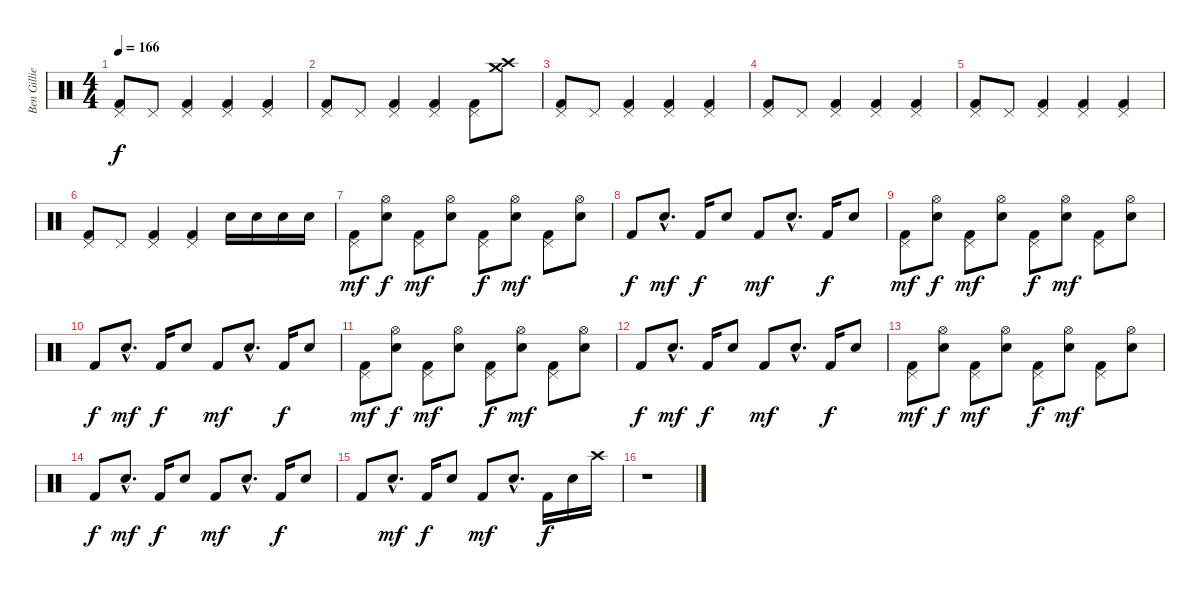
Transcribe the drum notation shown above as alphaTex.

\track ("Ben Gillies" "Ben Gillie") {instrument percussion}
\staff {score}
\articulation defaults
\ts (4 4)
\tempo 166
\clef neutral
\ks c
("Pedal Hi-Hat (hit)" "Kick (hit) 2").8{dy f} "Pedal Hi-Hat (hit)".8 ("Pedal Hi-Hat (hit)" "Kick (hit) 2").4 ("Pedal Hi-Hat (hit)" "Kick (hit) 2").4 ("Pedal Hi-Hat (hit)" "Kick (hit) 2").4 |
("Pedal Hi-Hat (hit)" "Kick (hit) 2").8 "Pedal Hi-Hat (hit)".8 ("Pedal Hi-Hat (hit)" "Kick (hit) 2").4 ("Pedal Hi-Hat (hit)" "Kick (hit) 2").4 ("Pedal Hi-Hat (hit)" "Kick (hit) 2").8 ("Crash high (hit)" "Crash medium (hit)").8 |
("Pedal Hi-Hat (hit)" "Kick (hit) 2").8 "Pedal Hi-Hat (hit)".8 ("Pedal Hi-Hat (hit)" "Kick (hit) 2").4 ("Pedal Hi-Hat (hit)" "Kick (hit) 2").4 ("Pedal Hi-Hat (hit)" "Kick (hit) 2").4 |
("Pedal Hi-Hat (hit)" "Kick (hit) 2").8 "Pedal Hi-Hat (hit)".8 ("Pedal Hi-Hat (hit)" "Kick (hit) 2").4 ("Pedal Hi-Hat (hit)" "Kick (hit) 2").4 ("Pedal Hi-Hat (hit)" "Kick (hit) 2").4 |
("Pedal Hi-Hat (hit)" "Kick (hit) 2").8 "Pedal Hi-Hat (hit)".8 ("Pedal Hi-Hat (hit)" "Kick (hit) 2").4 ("Pedal Hi-Hat (hit)" "Kick (hit) 2").4 ("Pedal Hi-Hat (hit)" "Kick (hit) 2").4 |
("Pedal Hi-Hat (hit)" "Kick (hit) 2").8 "Pedal Hi-Hat (hit)".8 ("Pedal Hi-Hat (hit)" "Kick (hit) 2").4 ("Pedal Hi-Hat (hit)" "Kick (hit) 2").4 "Electric Snare (hit)".16 "Electric Snare (hit)".16 "Electric Snare (hit)".16 "Electric Snare (hit)".16 |
("Pedal Hi-Hat (hit)" "Kick (hit) 2").8{dy mf} ("Hi-Hat (open)" "Electric Snare (hit)").8{dy f} ("Pedal Hi-Hat (hit)" "Kick (hit) 2").8{dy mf} ("Hi-Hat (open)" "Electric Snare (hit)").8 ("Pedal Hi-Hat (hit)" "Kick (hit) 2").8{dy f} ("Hi-Hat (open)" "Electric Snare (hit)").8{dy mf} ("Pedal Hi-Hat (hit)" "Kick (hit) 2").8 ("Hi-Hat (open)" "Electric Snare (hit)").8 |
"Kick (hit) 2".8{dy f} "Electric Snare (hit)"{hac}.8{d dy mf} "Kick (hit) 2".16{dy f} "Electric Snare (hit)".8 "Kick (hit) 2".8{dy mf} "Electric Snare (hit)"{hac}.8{d} "Kick (hit) 2".16{dy f} "Electric Snare (hit)".8 |
("Pedal Hi-Hat (hit)" "Kick (hit) 2").8{dy mf} ("Hi-Hat (open)" "Electric Snare (hit)").8{dy f} ("Pedal Hi-Hat (hit)" "Kick (hit) 2").8{dy mf} ("Hi-Hat (open)" "Electric Snare (hit)").8 ("Pedal Hi-Hat (hit)" "Kick (hit) 2").8{dy f} ("Hi-Hat (open)" "Electric Snare (hit)").8{dy mf} ("Pedal Hi-Hat (hit)" "Kick (hit) 2").8 ("Hi-Hat (open)" "Electric Snare (hit)").8 |
"Kick (hit) 2".8{dy f} "Electric Snare (hit)"{hac}.8{d dy mf} "Kick (hit) 2".16{dy f} "Electric Snare (hit)".8 "Kick (hit) 2".8{dy mf} "Electric Snare (hit)"{hac}.8{d} "Kick (hit) 2".16{dy f} "Electric Snare (hit)".8 |
("Pedal Hi-Hat (hit)" "Kick (hit) 2").8{dy mf} ("Hi-Hat (open)" "Electric Snare (hit)").8{dy f} ("Pedal Hi-Hat (hit)" "Kick (hit) 2").8{dy mf} ("Hi-Hat (open)" "Electric Snare (hit)").8 ("Pedal Hi-Hat (hit)" "Kick (hit) 2").8{dy f} ("Hi-Hat (open)" "Electric Snare (hit)").8{dy mf} ("Pedal Hi-Hat (hit)" "Kick (hit) 2").8 ("Hi-Hat (open)" "Electric Snare (hit)").8 |
"Kick (hit) 2".8{dy f} "Electric Snare (hit)"{hac}.8{d dy mf} "Kick (hit) 2".16{dy f} "Electric Snare (hit)".8 "Kick (hit) 2".8{dy mf} "Electric Snare (hit)"{hac}.8{d} "Kick (hit) 2".16{dy f} "Electric Snare (hit)".8 |
("Pedal Hi-Hat (hit)" "Kick (hit) 2").8{dy mf} ("Hi-Hat (open)" "Electric Snare (hit)").8{dy f} ("Pedal Hi-Hat (hit)" "Kick (hit) 2").8{dy mf} ("Hi-Hat (open)" "Electric Snare (hit)").8 ("Pedal Hi-Hat (hit)" "Kick (hit) 2").8{dy f} ("Hi-Hat (open)" "Electric Snare (hit)").8{dy mf} ("Pedal Hi-Hat (hit)" "Kick (hit) 2").8 ("Hi-Hat (open)" "Electric Snare (hit)").8 |
"Kick (hit) 2".8{dy f} "Electric Snare (hit)"{hac}.8{d dy mf} "Kick (hit) 2".16{dy f} "Electric Snare (hit)".8 "Kick (hit) 2".8{dy mf} "Electric Snare (hit)"{hac}.8{d} "Kick (hit) 2".16{dy f} "Electric Snare (hit)".8 |
"Kick (hit) 2".8 "Electric Snare (hit)"{hac}.8{d dy mf} "Kick (hit) 2".16{dy f} "Electric Snare (hit)".8 "Kick (hit) 2".8{dy mf} "Electric Snare (hit)"{hac}.8{d} "Kick (hit) 2".16{dy f} "Electric Snare (hit)".16 "Crash high (hit)".16 |
r.1
